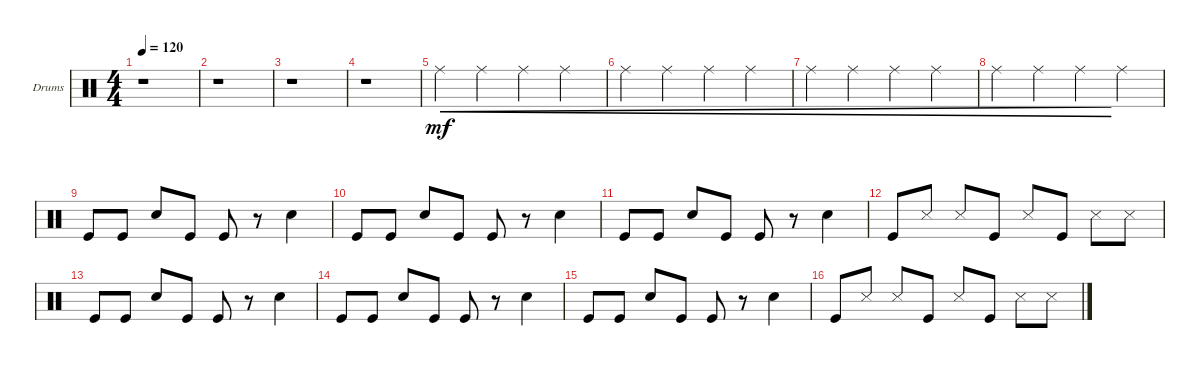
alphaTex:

\defaultSystemsLayout 4
\bracketExtendMode groupsimilarinstruments
\firstSystemTrackNameOrientation horizontal
\otherSystemsTrackNameOrientation horizontal
\track ("Drumkit" "Drums") {instrument percussion}
\staff {score}
\articulation defaults
\ts (4 4)
\tempo 120
\clef neutral
\scale
0.474178
\ks c
r.1{dy mf} |
\scale
0.262911 r.1 |
\scale
0.262911 r.1 |
\scale
0.333333 r.1 |
\scale
0.333333 "Ride (middle)".4{lyrics (0 "") lyrics (1 "") lyrics (2 "") lyrics (3 "") lyrics (4 "") cre} "Ride (middle)".4{cre} "Ride (middle)".4{cre} "Ride (middle)".4{cre} |
\scale
0.333333 "Ride (middle)".4{cre} "Ride (middle)".4{cre} "Ride (middle)".4{cre} "Ride (middle)".4{cre} |
"Ride (middle)".4{cre} "Ride (middle)".4{cre} "Ride (middle)".4{cre} "Ride (middle)".4{cre} |
"Ride (middle)".4{cre} "Ride (middle)".4{cre} "Ride (middle)".4{cre} "Ride (middle)".4 |
"Kick (hit)".8 "Kick (hit)".8 "Snare (hit) 2".8 "Kick (hit)".8 "Kick (hit)".8 r.8 "Snare (hit) 2".4 |
"Kick (hit)".8 "Kick (hit)".8 "Snare (hit) 2".8 "Kick (hit)".8 "Kick (hit)".8 r.8 "Snare (hit) 2".4 |
"Kick (hit)".8 "Kick (hit)".8 "Snare (hit) 2".8 "Kick (hit)".8 "Kick (hit)".8 r.8 "Snare (hit) 2".4 |
"Kick (hit)".8 "Snare (side stick) 3".8 "Snare (side stick) 3".8 "Kick (hit)".8 "Snare (side stick) 3".8 "Kick (hit)".8 "Snare (side stick) 3".8 "Snare (side stick) 3".8 |
"Kick (hit)".8 "Kick (hit)".8 "Snare (hit) 2".8 "Kick (hit)".8 "Kick (hit)".8 r.8 "Snare (hit) 2".4 |
"Kick (hit)".8 "Kick (hit)".8 "Snare (hit) 2".8 "Kick (hit)".8 "Kick (hit)".8 r.8 "Snare (hit) 2".4 |
"Kick (hit)".8 "Kick (hit)".8 "Snare (hit) 2".8 "Kick (hit)".8 "Kick (hit)".8 r.8 "Snare (hit) 2".4 |
"Kick (hit)".8 "Snare (side stick) 3".8 "Snare (side stick) 3".8 "Kick (hit)".8 "Snare (side stick) 3".8 "Kick (hit)".8 "Snare (side stick) 3".8 "Snare (side stick) 3".8
